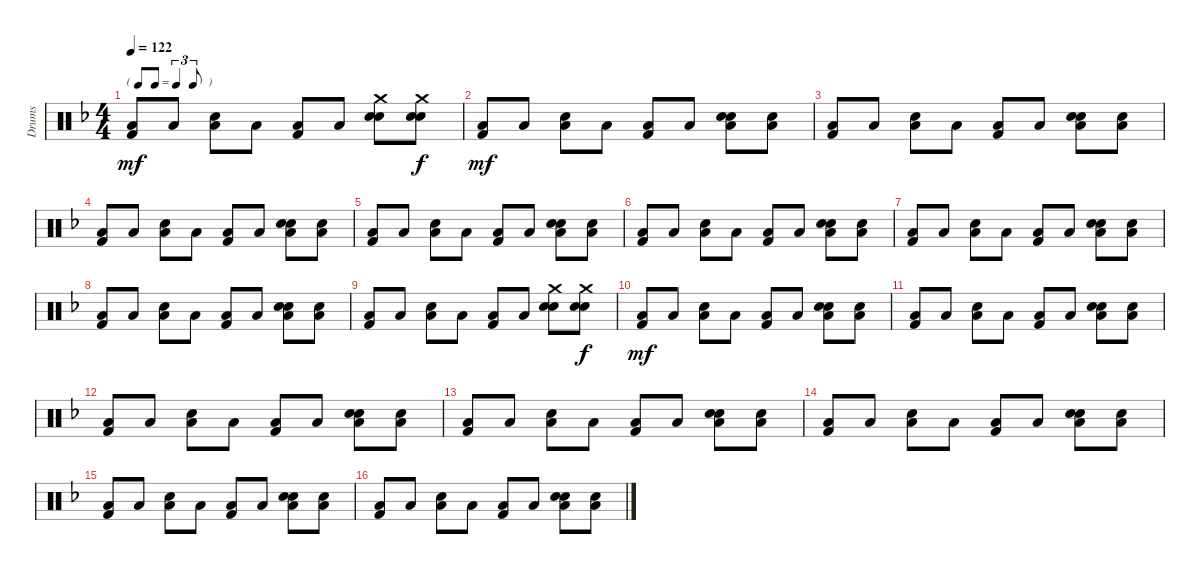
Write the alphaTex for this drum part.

\track ("Drums" "Drums") {instrument percussion}
\staff {score}
\articulation defaults
\ts (4 4)
\tf triplet8th
\tempo 122
\clef neutral
\ks dminor
("Low Floor Tom (hit)" "Kick (hit) 2").8{dy mf} "Low Floor Tom (hit)".8 ("Low Floor Tom (hit)" "Snare (hit) 2").8 "Low Floor Tom (hit)".8 ("Low Floor Tom (hit)" "Kick (hit) 2").8 "Low Floor Tom (hit)".8 ("Crash medium (hit)" "Hand Clap (hit)" "Snare (hit) 2").8 ("Crash medium (hit)" "Hand Clap (hit)" "Snare (hit) 2").8{dy f} |
("Low Floor Tom (hit)" "Kick (hit) 2").8{dy mf} "Low Floor Tom (hit)".8 ("Low Floor Tom (hit)" "Snare (hit) 2").8 "Low Floor Tom (hit)".8 ("Low Floor Tom (hit)" "Kick (hit) 2").8 "Low Floor Tom (hit)".8 ("Hand Clap (hit)" "Low Floor Tom (hit)" "Snare (hit) 2").8 ("Hand Clap (hit)" "Low Floor Tom (hit)").8 |
("Low Floor Tom (hit)" "Kick (hit) 2").8 "Low Floor Tom (hit)".8 ("Low Floor Tom (hit)" "Snare (hit) 2").8 "Low Floor Tom (hit)".8 ("Low Floor Tom (hit)" "Kick (hit) 2").8 "Low Floor Tom (hit)".8 ("Hand Clap (hit)" "Low Floor Tom (hit)" "Snare (hit) 2").8 ("Hand Clap (hit)" "Low Floor Tom (hit)").8 |
("Low Floor Tom (hit)" "Kick (hit) 2").8 "Low Floor Tom (hit)".8 ("Low Floor Tom (hit)" "Snare (hit) 2").8 "Low Floor Tom (hit)".8 ("Low Floor Tom (hit)" "Kick (hit) 2").8 "Low Floor Tom (hit)".8 ("Hand Clap (hit)" "Low Floor Tom (hit)" "Snare (hit) 2").8 ("Hand Clap (hit)" "Low Floor Tom (hit)").8 |
("Low Floor Tom (hit)" "Kick (hit) 2").8 "Low Floor Tom (hit)".8 ("Low Floor Tom (hit)" "Snare (hit) 2").8 "Low Floor Tom (hit)".8 ("Low Floor Tom (hit)" "Kick (hit) 2").8 "Low Floor Tom (hit)".8 ("Hand Clap (hit)" "Low Floor Tom (hit)" "Snare (hit) 2").8 ("Hand Clap (hit)" "Low Floor Tom (hit)").8 |
("Low Floor Tom (hit)" "Kick (hit) 2").8 "Low Floor Tom (hit)".8 ("Low Floor Tom (hit)" "Snare (hit) 2").8 "Low Floor Tom (hit)".8 ("Low Floor Tom (hit)" "Kick (hit) 2").8 "Low Floor Tom (hit)".8 ("Hand Clap (hit)" "Low Floor Tom (hit)" "Snare (hit) 2").8 ("Hand Clap (hit)" "Low Floor Tom (hit)").8 |
("Low Floor Tom (hit)" "Kick (hit) 2").8 "Low Floor Tom (hit)".8 ("Low Floor Tom (hit)" "Snare (hit) 2").8 "Low Floor Tom (hit)".8 ("Low Floor Tom (hit)" "Kick (hit) 2").8 "Low Floor Tom (hit)".8 ("Hand Clap (hit)" "Low Floor Tom (hit)" "Snare (hit) 2").8 ("Hand Clap (hit)" "Low Floor Tom (hit)").8 |
("Low Floor Tom (hit)" "Kick (hit) 2").8 "Low Floor Tom (hit)".8 ("Low Floor Tom (hit)" "Snare (hit) 2").8 "Low Floor Tom (hit)".8 ("Low Floor Tom (hit)" "Kick (hit) 2").8 "Low Floor Tom (hit)".8 ("Hand Clap (hit)" "Low Floor Tom (hit)" "Snare (hit) 2").8 ("Hand Clap (hit)" "Low Floor Tom (hit)").8 |
("Low Floor Tom (hit)" "Kick (hit) 2").8 "Low Floor Tom (hit)".8 ("Low Floor Tom (hit)" "Snare (hit) 2").8 "Low Floor Tom (hit)".8 ("Low Floor Tom (hit)" "Kick (hit) 2").8 "Low Floor Tom (hit)".8 ("Crash medium (hit)" "Hand Clap (hit)" "Snare (hit) 2").8 ("Crash medium (hit)" "Hand Clap (hit)" "Snare (hit) 2").8{dy f} |
("Low Floor Tom (hit)" "Kick (hit) 2").8{dy mf} "Low Floor Tom (hit)".8 ("Low Floor Tom (hit)" "Snare (hit) 2").8 "Low Floor Tom (hit)".8 ("Low Floor Tom (hit)" "Kick (hit) 2").8 "Low Floor Tom (hit)".8 ("Hand Clap (hit)" "Low Floor Tom (hit)" "Snare (hit) 2").8 ("Hand Clap (hit)" "Low Floor Tom (hit)").8 |
("Low Floor Tom (hit)" "Kick (hit) 2").8 "Low Floor Tom (hit)".8 ("Low Floor Tom (hit)" "Snare (hit) 2").8 "Low Floor Tom (hit)".8 ("Low Floor Tom (hit)" "Kick (hit) 2").8 "Low Floor Tom (hit)".8 ("Hand Clap (hit)" "Low Floor Tom (hit)" "Snare (hit) 2").8 ("Hand Clap (hit)" "Low Floor Tom (hit)").8 |
("Low Floor Tom (hit)" "Kick (hit) 2").8 "Low Floor Tom (hit)".8 ("Low Floor Tom (hit)" "Snare (hit) 2").8 "Low Floor Tom (hit)".8 ("Low Floor Tom (hit)" "Kick (hit) 2").8 "Low Floor Tom (hit)".8 ("Hand Clap (hit)" "Low Floor Tom (hit)" "Snare (hit) 2").8 ("Hand Clap (hit)" "Low Floor Tom (hit)").8 |
("Low Floor Tom (hit)" "Kick (hit) 2").8 "Low Floor Tom (hit)".8 ("Low Floor Tom (hit)" "Snare (hit) 2").8 "Low Floor Tom (hit)".8 ("Low Floor Tom (hit)" "Kick (hit) 2").8 "Low Floor Tom (hit)".8 ("Hand Clap (hit)" "Low Floor Tom (hit)" "Snare (hit) 2").8 ("Hand Clap (hit)" "Low Floor Tom (hit)").8 |
("Low Floor Tom (hit)" "Kick (hit) 2").8 "Low Floor Tom (hit)".8 ("Low Floor Tom (hit)" "Snare (hit) 2").8 "Low Floor Tom (hit)".8 ("Low Floor Tom (hit)" "Kick (hit) 2").8 "Low Floor Tom (hit)".8 ("Hand Clap (hit)" "Low Floor Tom (hit)" "Snare (hit) 2").8 ("Hand Clap (hit)" "Low Floor Tom (hit)").8 |
("Low Floor Tom (hit)" "Kick (hit) 2").8 "Low Floor Tom (hit)".8 ("Low Floor Tom (hit)" "Snare (hit) 2").8 "Low Floor Tom (hit)".8 ("Low Floor Tom (hit)" "Kick (hit) 2").8 "Low Floor Tom (hit)".8 ("Hand Clap (hit)" "Low Floor Tom (hit)" "Snare (hit) 2").8 ("Hand Clap (hit)" "Low Floor Tom (hit)").8 |
("Low Floor Tom (hit)" "Kick (hit) 2").8 "Low Floor Tom (hit)".8 ("Low Floor Tom (hit)" "Snare (hit) 2").8 "Low Floor Tom (hit)".8 ("Low Floor Tom (hit)" "Kick (hit) 2").8 "Low Floor Tom (hit)".8 ("Hand Clap (hit)" "Low Floor Tom (hit)" "Snare (hit) 2").8 ("Hand Clap (hit)" "Low Floor Tom (hit)").8
